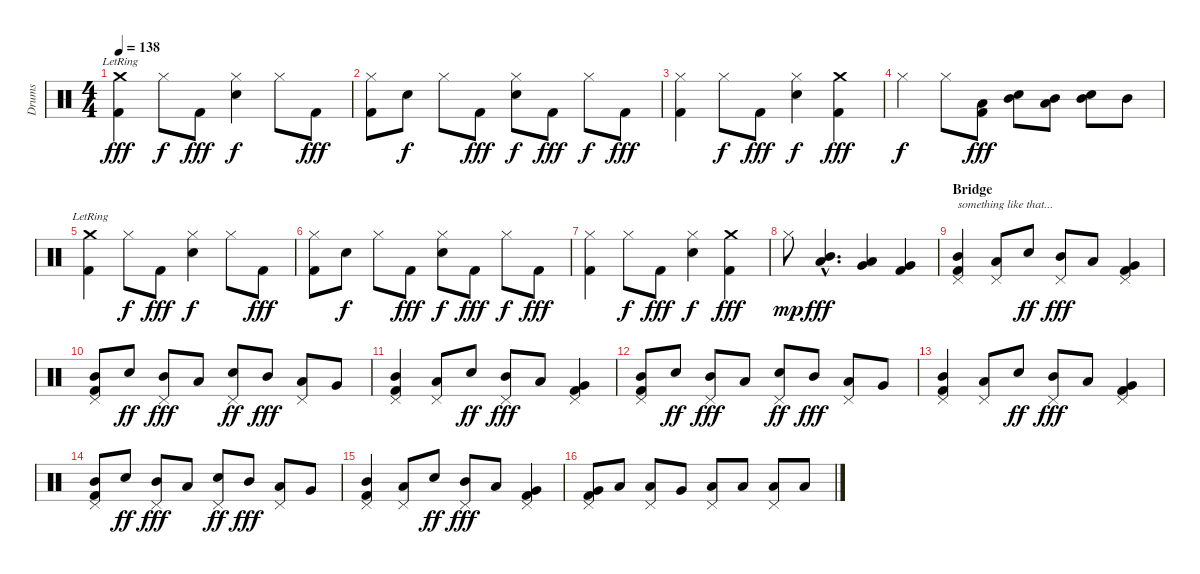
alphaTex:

\track ("Drums" "Drums") {instrument percussion}
\staff {score}
\articulation defaults
\ts (4 4)
\tempo 138
\clef neutral
\ks c
("Crash medium (hit)"{lr} "Kick (hit) 2").4{dy fff} "Hi-Hat (closed)".8{dy f} "Kick (hit) 2".8{dy fff} ("Hi-Hat (closed)" "Snare (hit) 2").4{dy f} "Hi-Hat (closed)".8 "Kick (hit) 2".8{dy fff} |
("Hi-Hat (closed)" "Kick (hit) 2").8 "Snare (hit) 2".8{dy f} "Hi-Hat (closed)".8 "Kick (hit) 2".8{dy fff} ("Hi-Hat (closed)" "Snare (hit) 2").8{dy f} "Kick (hit) 2".8{dy fff} "Hi-Hat (closed)".8{dy f} "Kick (hit) 2".8{dy fff} |
("Hi-Hat (closed)" "Kick (hit) 2").4 "Hi-Hat (closed)".8{dy f} "Kick (hit) 2".8{dy fff} ("Hi-Hat (closed)" "Snare (hit) 2").4{dy f} ("Crash medium (hit)" "Kick (hit) 2").4{dy fff} |
"Hi-Hat (closed)".4{dy f} "Hi-Hat (closed)".8 ("Low Tom (hit)" "Kick (hit) 2").8{dy fff} ("Snare (hit) 2" "Mid Tom (hit)").8 ("Mid Tom (hit)" "Low Tom (hit)").8 ("Snare (hit) 2" "Mid Tom (hit)").8 "Mid Tom (hit)".8 |
("Crash medium (hit)"{lr} "Kick (hit) 2").4 "Hi-Hat (closed)".8{dy f} "Kick (hit) 2".8{dy fff} ("Hi-Hat (closed)" "Snare (hit) 2").4{dy f} "Hi-Hat (closed)".8 "Kick (hit) 2".8{dy fff} |
("Hi-Hat (closed)" "Kick (hit) 2").8 "Snare (hit) 2".8{dy f} "Hi-Hat (closed)".8 "Kick (hit) 2".8{dy fff} ("Hi-Hat (closed)" "Snare (hit) 2").8{dy f} "Kick (hit) 2".8{dy fff} "Hi-Hat (closed)".8{dy f} "Kick (hit) 2".8{dy fff} |
("Hi-Hat (closed)" "Kick (hit) 2").4 "Hi-Hat (closed)".8{dy f} "Kick (hit) 2".8{dy fff} ("Hi-Hat (closed)" "Snare (hit) 2").4{dy f} ("Crash medium (hit)" "Kick (hit) 2").4{dy fff} |
"Hi-Hat (closed)".8{dy mp} ("Mid Tom (hit)"{hac} "Low Tom (hit)"{hac}).4{d dy fff} ("Low Tom (hit)" "Very Low Tom (hit)").4 ("Very Low Tom (hit)" "Kick (hit) 2").4 |
\section ("" "Bridge")
("Pedal Hi-Hat (hit)" "Mid Tom (hit)" "Kick (hit) 2").4{txt "something like that..."} ("Pedal Hi-Hat (hit)" "Low Tom (hit)").8 "Snare (hit) 2".8{dy ff} ("Pedal Hi-Hat (hit)" "Mid Tom (hit)").8{dy fff} "Low Tom (hit)".8 ("Pedal Hi-Hat (hit)" "Very Low Tom (hit)" "Kick (hit) 2").4 |
("Pedal Hi-Hat (hit)" "Mid Tom (hit)" "Kick (hit) 2").8 "Snare (hit) 2".8{dy ff} ("Pedal Hi-Hat (hit)" "Mid Tom (hit)").8{dy fff} "Low Tom (hit)".8 ("Pedal Hi-Hat (hit)" "Snare (hit) 2").8{dy ff} "Mid Tom (hit)".8{dy fff} ("Pedal Hi-Hat (hit)" "Low Tom (hit)").8 "Very Low Tom (hit)".8 |
("Pedal Hi-Hat (hit)" "Mid Tom (hit)" "Kick (hit) 2").4 ("Pedal Hi-Hat (hit)" "Low Tom (hit)").8 "Snare (hit) 2".8{dy ff} ("Pedal Hi-Hat (hit)" "Mid Tom (hit)").8{dy fff} "Low Tom (hit)".8 ("Pedal Hi-Hat (hit)" "Very Low Tom (hit)" "Kick (hit) 2").4 |
("Pedal Hi-Hat (hit)" "Mid Tom (hit)" "Kick (hit) 2").8 "Snare (hit) 2".8{dy ff} ("Pedal Hi-Hat (hit)" "Mid Tom (hit)").8{dy fff} "Low Tom (hit)".8 ("Pedal Hi-Hat (hit)" "Snare (hit) 2").8{dy ff} "Mid Tom (hit)".8{dy fff} ("Pedal Hi-Hat (hit)" "Low Tom (hit)").8 "Very Low Tom (hit)".8 |
("Pedal Hi-Hat (hit)" "Mid Tom (hit)" "Kick (hit) 2").4 ("Pedal Hi-Hat (hit)" "Low Tom (hit)").8 "Snare (hit) 2".8{dy ff} ("Pedal Hi-Hat (hit)" "Mid Tom (hit)").8{dy fff} "Low Tom (hit)".8 ("Pedal Hi-Hat (hit)" "Very Low Tom (hit)" "Kick (hit) 2").4 |
("Pedal Hi-Hat (hit)" "Mid Tom (hit)" "Kick (hit) 2").8 "Snare (hit) 2".8{dy ff} ("Pedal Hi-Hat (hit)" "Mid Tom (hit)").8{dy fff} "Low Tom (hit)".8 ("Pedal Hi-Hat (hit)" "Snare (hit) 2").8{dy ff} "Mid Tom (hit)".8{dy fff} ("Pedal Hi-Hat (hit)" "Low Tom (hit)").8 "Very Low Tom (hit)".8 |
("Pedal Hi-Hat (hit)" "Mid Tom (hit)" "Kick (hit) 2").4 ("Pedal Hi-Hat (hit)" "Low Tom (hit)").8 "Snare (hit) 2".8{dy ff} ("Pedal Hi-Hat (hit)" "Mid Tom (hit)").8{dy fff} "Low Tom (hit)".8 ("Pedal Hi-Hat (hit)" "Very Low Tom (hit)" "Kick (hit) 2").4 |
("Pedal Hi-Hat (hit)" "Very Low Tom (hit)" "Kick (hit) 2").8 "Low Tom (hit)".8 ("Pedal Hi-Hat (hit)" "Low Tom (hit)").8 "Very Low Tom (hit)".8 ("Pedal Hi-Hat (hit)" "Low Tom (hit)").8 "Low Tom (hit)".8 ("Pedal Hi-Hat (hit)" "Low Tom (hit)").8 "Low Tom (hit)".8
